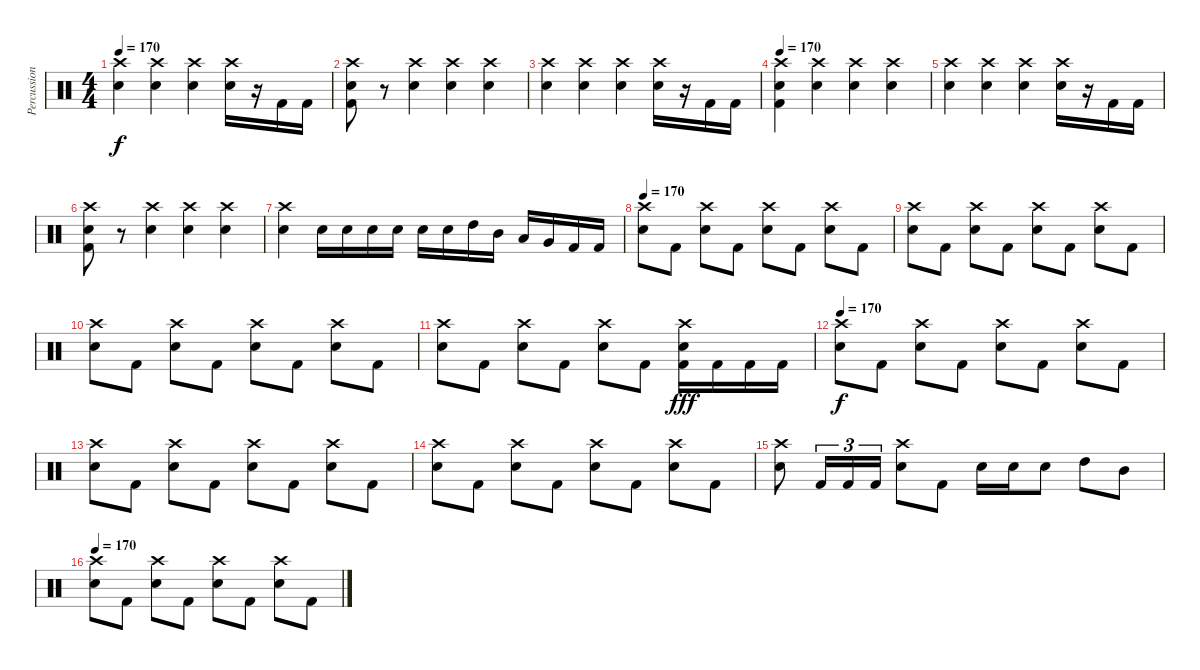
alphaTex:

\track ("Percussion" "Percussion") {instrument percussion}
\staff {score}
\articulation defaults
\ts (4 4)
\tempo 170
\clef neutral
\ks c
("Crash high (hit)" "Electric Snare (hit)").4{dy f} ("Crash high (hit)" "Electric Snare (hit)").4 ("Crash high (hit)" "Electric Snare (hit)").4 ("Crash high (hit)" "Electric Snare (hit)").16 r.16 "Kick (hit) 2".16 "Kick (hit) 2".16 |
("Crash high (hit)" "Electric Snare (hit)" "Kick (hit) 2").8 r.8 ("Crash high (hit)" "Electric Snare (hit)").4 ("Crash high (hit)" "Electric Snare (hit)").4 ("Crash high (hit)" "Electric Snare (hit)").4 |
("Crash high (hit)" "Electric Snare (hit)").4 ("Crash high (hit)" "Electric Snare (hit)").4 ("Crash high (hit)" "Electric Snare (hit)").4 ("Crash high (hit)" "Electric Snare (hit)").16 r.16 "Kick (hit) 2".16 "Kick (hit) 2".16 |
\tempo 170
("Crash high (hit)" "Electric Snare (hit)" "Kick (hit) 2").4 ("Crash high (hit)" "Electric Snare (hit)").4 ("Crash high (hit)" "Electric Snare (hit)").4 ("Crash high (hit)" "Electric Snare (hit)").4 |
("Crash high (hit)" "Electric Snare (hit)").4 ("Crash high (hit)" "Electric Snare (hit)").4 ("Crash high (hit)" "Electric Snare (hit)").4 ("Crash high (hit)" "Electric Snare (hit)").16 r.16 "Kick (hit) 2".16 "Kick (hit) 2".16 |
("Crash high (hit)" "Electric Snare (hit)" "Kick (hit) 2").8 r.8 ("Crash high (hit)" "Electric Snare (hit)").4 ("Crash high (hit)" "Electric Snare (hit)").4 ("Crash high (hit)" "Electric Snare (hit)").4 |
("Crash high (hit)" "Electric Snare (hit)").4 "Electric Snare (hit)".16 "Electric Snare (hit)".16 "Electric Snare (hit)".16 "Electric Snare (hit)".16 "Electric Snare (hit)".16 "Electric Snare (hit)".16 "High Tom (hit)".16 "Mid Tom (hit)".16 "Low Tom (hit)".16 "Very Low Tom (hit)".16 "Kick (hit) 2".16 "Kick (hit) 2".16 |
\tempo 170
("Crash high (hit)" "Electric Snare (hit)").8 "Kick (hit) 2".8 ("Crash high (hit)" "Electric Snare (hit)").8 "Kick (hit) 2".8 ("Crash high (hit)" "Electric Snare (hit)").8 "Kick (hit) 2".8 ("Crash high (hit)" "Electric Snare (hit)").8 "Kick (hit) 2".8 |
("Crash high (hit)" "Electric Snare (hit)").8 "Kick (hit) 2".8 ("Crash high (hit)" "Electric Snare (hit)").8 "Kick (hit) 2".8 ("Crash high (hit)" "Electric Snare (hit)").8 "Kick (hit) 2".8 ("Crash high (hit)" "Electric Snare (hit)").8 "Kick (hit) 2".8 |
("Crash high (hit)" "Electric Snare (hit)").8 "Kick (hit) 2".8 ("Crash high (hit)" "Electric Snare (hit)").8 "Kick (hit) 2".8 ("Crash high (hit)" "Electric Snare (hit)").8 "Kick (hit) 2".8 ("Crash high (hit)" "Electric Snare (hit)").8 "Kick (hit) 2".8 |
("Crash high (hit)" "Electric Snare (hit)").8 "Kick (hit) 2".8 ("Crash high (hit)" "Electric Snare (hit)").8 "Kick (hit) 2".8 ("Crash high (hit)" "Electric Snare (hit)").8 "Kick (hit) 2".8 ("Crash high (hit)" "Electric Snare (hit)" "Kick (hit) 2").16{dy fff} "Kick (hit) 2".16 "Kick (hit) 2".16 "Kick (hit) 2".16 |
\tempo 170
("Crash high (hit)" "Electric Snare (hit)").8{dy f} "Kick (hit) 2".8 ("Crash high (hit)" "Electric Snare (hit)").8 "Kick (hit) 2".8 ("Crash high (hit)" "Electric Snare (hit)").8 "Kick (hit) 2".8 ("Crash high (hit)" "Electric Snare (hit)").8 "Kick (hit) 2".8 |
("Crash high (hit)" "Electric Snare (hit)").8 "Kick (hit) 2".8 ("Crash high (hit)" "Electric Snare (hit)").8 "Kick (hit) 2".8 ("Crash high (hit)" "Electric Snare (hit)").8 "Kick (hit) 2".8 ("Crash high (hit)" "Electric Snare (hit)").8 "Kick (hit) 2".8 |
("Crash high (hit)" "Electric Snare (hit)").8 "Kick (hit) 2".8 ("Crash high (hit)" "Electric Snare (hit)").8 "Kick (hit) 2".8 ("Crash high (hit)" "Electric Snare (hit)").8 "Kick (hit) 2".8 ("Crash high (hit)" "Electric Snare (hit)").8 "Kick (hit) 2".8 |
("Crash high (hit)" "Electric Snare (hit)").8 "Kick (hit) 2".16{tu (3 2)} "Kick (hit) 2".16{tu (3 2)} "Kick (hit) 2".16{tu (3 2)} ("Crash high (hit)" "Electric Snare (hit)").8 "Kick (hit) 2".8 "Electric Snare (hit)".16 "Electric Snare (hit)".16 "Electric Snare (hit)".8 "High Tom (hit)".8 "Mid Tom (hit)".8 |
\tempo 170
("Crash high (hit)" "Electric Snare (hit)").8 "Kick (hit) 2".8 ("Crash high (hit)" "Electric Snare (hit)").8 "Kick (hit) 2".8 ("Crash high (hit)" "Electric Snare (hit)").8 "Kick (hit) 2".8 ("Crash high (hit)" "Electric Snare (hit)").8 "Kick (hit) 2".8
